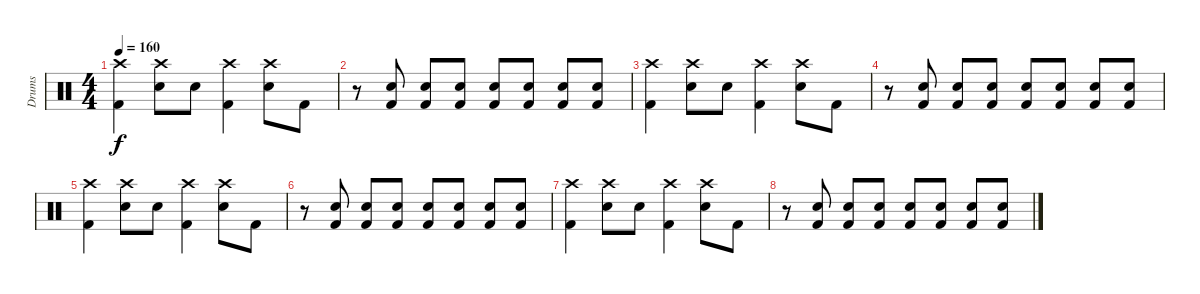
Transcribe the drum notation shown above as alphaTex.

\track ("Drums" "Drums") {instrument percussion}
\staff {score}
\articulation defaults
\ts (4 4)
\tempo 160
\clef neutral
\ks c
("Crash high (hit)" "Kick (hit) 2").4{dy f} ("Crash high (hit)" "Electric Snare (hit)").8 "Electric Snare (hit)".8 ("Crash high (hit)" "Kick (hit) 2").4 ("Crash high (hit)" "Electric Snare (hit)").8 "Kick (hit) 2".8 |
r.8 ("Electric Snare (hit)" "Kick (hit) 2").8 ("Electric Snare (hit)" "Kick (hit) 2").8 ("Electric Snare (hit)" "Kick (hit) 2").8 ("Electric Snare (hit)" "Kick (hit) 2").8 ("Electric Snare (hit)" "Kick (hit) 2").8 ("Electric Snare (hit)" "Kick (hit) 2").8 ("Electric Snare (hit)" "Kick (hit) 2").8 |
("Crash high (hit)" "Kick (hit) 2").4 ("Crash high (hit)" "Electric Snare (hit)").8 "Electric Snare (hit)".8 ("Crash high (hit)" "Kick (hit) 2").4 ("Crash high (hit)" "Electric Snare (hit)").8 "Kick (hit) 2".8 |
r.8 ("Electric Snare (hit)" "Kick (hit) 2").8 ("Electric Snare (hit)" "Kick (hit) 2").8 ("Electric Snare (hit)" "Kick (hit) 2").8 ("Electric Snare (hit)" "Kick (hit) 2").8 ("Electric Snare (hit)" "Kick (hit) 2").8 ("Electric Snare (hit)" "Kick (hit) 2").8 ("Electric Snare (hit)" "Kick (hit) 2").8 |
("Crash high (hit)" "Kick (hit) 2").4 ("Crash high (hit)" "Electric Snare (hit)").8 "Electric Snare (hit)".8 ("Crash high (hit)" "Kick (hit) 2").4 ("Crash high (hit)" "Electric Snare (hit)").8 "Kick (hit) 2".8 |
r.8 ("Electric Snare (hit)" "Kick (hit) 2").8 ("Electric Snare (hit)" "Kick (hit) 2").8 ("Electric Snare (hit)" "Kick (hit) 2").8 ("Electric Snare (hit)" "Kick (hit) 2").8 ("Electric Snare (hit)" "Kick (hit) 2").8 ("Electric Snare (hit)" "Kick (hit) 2").8 ("Electric Snare (hit)" "Kick (hit) 2").8 |
("Crash high (hit)" "Kick (hit) 2").4 ("Crash high (hit)" "Electric Snare (hit)").8 "Electric Snare (hit)".8 ("Crash high (hit)" "Kick (hit) 2").4 ("Crash high (hit)" "Electric Snare (hit)").8 "Kick (hit) 2".8 |
r.8 ("Electric Snare (hit)" "Kick (hit) 2").8 ("Electric Snare (hit)" "Kick (hit) 2").8 ("Electric Snare (hit)" "Kick (hit) 2").8 ("Electric Snare (hit)" "Kick (hit) 2").8 ("Electric Snare (hit)" "Kick (hit) 2").8 ("Electric Snare (hit)" "Kick (hit) 2").8 ("Electric Snare (hit)" "Kick (hit) 2").8
